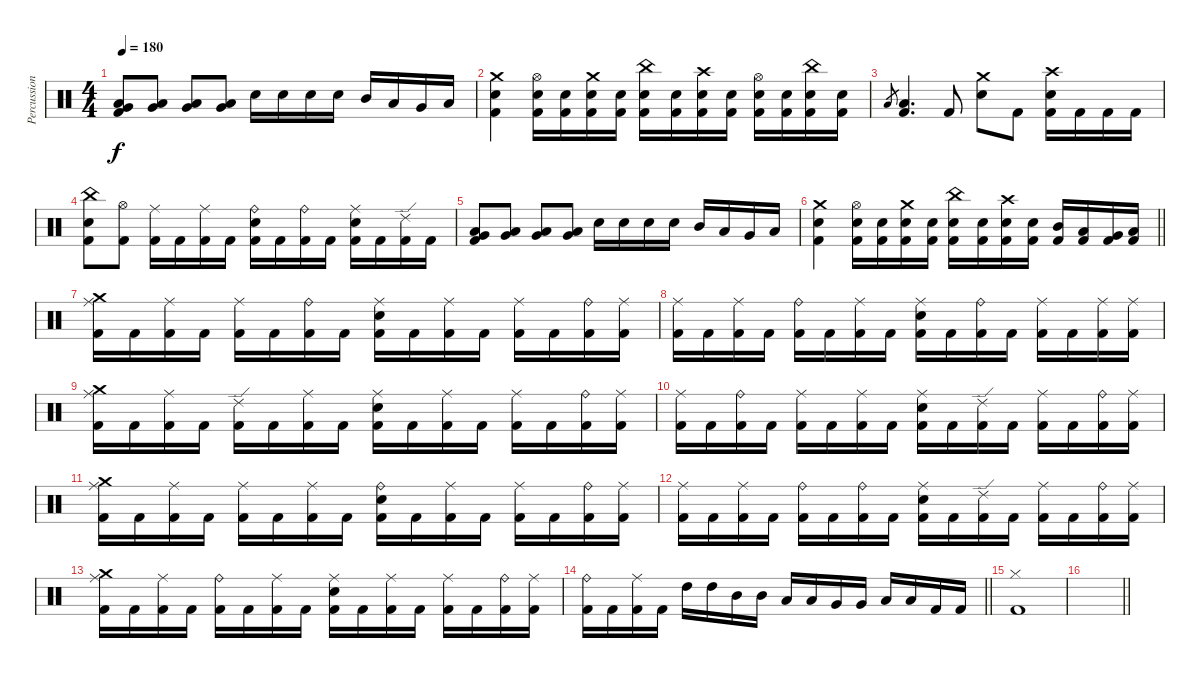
\track ("Percussions" "Percussion") {instrument percussion}
\staff {score}
\articulation defaults
\ts (4 4)
\tempo 180
\clef neutral
\ks c
("Low Tom (hit)" "Very Low Tom (hit)" "Kick (hit) 2").8{dy f} ("Low Tom (hit)" "Very Low Tom (hit)").8 ("Low Tom (hit)" "Very Low Tom (hit)").8 ("Low Tom (hit)" "Very Low Tom (hit)").8 "Electric Snare (hit)".16 "Electric Snare (hit)".16 "Electric Snare (hit)".16 "Electric Snare (hit)".16 "Mid Tom (hit)".16 "Low Tom (hit)".16 "Very Low Tom (hit)".16 "Low Floor Tom (hit)".16 |
("Crash medium (hit)" "Electric Snare (hit)" "Kick (hit) 2").4 ("Hi-Hat (open)" "Electric Snare (hit)" "Kick (hit) 2").16 ("Electric Snare (hit)" "Kick (hit) 2").16 ("Crash medium (hit)" "Electric Snare (hit)" "Kick (hit) 2").16 ("Electric Snare (hit)" "Kick (hit) 2").16 ("China (hit)" "Electric Snare (hit)" "Kick (hit) 2").16 ("Electric Snare (hit)" "Kick (hit) 2").16 ("Crash high (hit)" "Electric Snare (hit)" "Kick (hit) 2").16 ("Electric Snare (hit)" "Kick (hit) 2").16 ("Hi-Hat (open)" "Electric Snare (hit)" "Kick (hit) 2").16 ("Electric Snare (hit)" "Kick (hit) 2").16 ("China (hit)" "Electric Snare (hit)" "Kick (hit) 2").16 ("Electric Snare (hit)" "Kick (hit) 2").16 |
"Low Tom (hit)".8{gr} ("Low Tom (hit)" "Kick (hit) 2").4{d} "Kick (hit) 2".8 ("Crash medium (hit)" "Electric Snare (hit)").8 "Kick (hit) 2".8 ("Crash high (hit)" "Electric Snare (hit)" "Kick (hit) 2").16 "Kick (hit) 2".16 "Kick (hit) 2".16 "Kick (hit) 2".16 |
("China (hit)" "Electric Snare (hit)" "Kick (hit) 2").8 ("Hi-Hat (open)" "Kick (hit) 2").8 ("Ride (middle)" "Kick (hit) 2").16 "Kick (hit) 2".16 ("Ride (middle)" "Kick (hit) 2").16 "Kick (hit) 2".16 ("Ride (bell)" "Electric Snare (hit)" "Kick (hit) 2").16 "Kick (hit) 2".16 ("Ride (bell)" "Kick (hit) 2").16 "Kick (hit) 2".16 ("Ride (middle)" "Electric Snare (hit)" "Kick (hit) 2").16 "Kick (hit) 2".16 ("Ride (edge) 2" "Kick (hit) 2").16 "Kick (hit) 2".16 |
("Low Tom (hit)" "Very Low Tom (hit)" "Kick (hit) 2").8 ("Low Tom (hit)" "Very Low Tom (hit)").8 ("Low Tom (hit)" "Very Low Tom (hit)").8 ("Low Tom (hit)" "Very Low Tom (hit)").8 "Electric Snare (hit)".16 "Electric Snare (hit)".16 "Electric Snare (hit)".16 "Electric Snare (hit)".16 "Mid Tom (hit)".16 "Low Tom (hit)".16 "Very Low Tom (hit)".16 "Low Floor Tom (hit)".16 |
\barLineRight lightlight
("Crash medium (hit)" "Electric Snare (hit)" "Kick (hit) 2").4 ("Hi-Hat (open)" "Electric Snare (hit)" "Kick (hit) 2").16 ("Electric Snare (hit)" "Kick (hit) 2").16 ("Crash medium (hit)" "Electric Snare (hit)" "Kick (hit) 2").16 ("Electric Snare (hit)" "Kick (hit) 2").16 ("China (hit)" "Electric Snare (hit)" "Kick (hit) 2").16 ("Electric Snare (hit)" "Kick (hit) 2").16 ("Crash high (hit)" "Electric Snare (hit)" "Kick (hit) 2").16 ("Electric Snare (hit)" "Kick (hit) 2").16 ("Mid Tom (hit)" "Kick (hit) 2").16 ("Low Tom (hit)" "Kick (hit) 2").16 ("Very Low Tom (hit)" "Kick (hit) 2").16 ("Low Floor Tom (hit)" "Kick (hit) 2").16 |
("Ride (middle)" "Crash medium (hit)" "Kick (hit) 2").16 "Kick (hit) 2".16 ("Ride (middle)" "Kick (hit) 2").16 "Kick (hit) 2".16 ("Ride (middle)" "Kick (hit) 2").16 "Kick (hit) 2".16 ("Ride (bell)" "Kick (hit) 2").16 "Kick (hit) 2".16 ("Ride (middle)" "Electric Snare (hit)" "Kick (hit) 2").16 "Kick (hit) 2".16 ("Ride (middle)" "Kick (hit) 2").16 "Kick (hit) 2".16 ("Ride (middle)" "Kick (hit) 2").16 "Kick (hit) 2".16 ("Ride (bell)" "Kick (hit) 2").16 ("Ride (middle)" "Kick (hit) 2").16 |
("Ride (middle)" "Kick (hit) 2").16 "Kick (hit) 2".16 ("Ride (middle)" "Kick (hit) 2").16 "Kick (hit) 2".16 ("Ride (bell)" "Kick (hit) 2").16 "Kick (hit) 2".16 ("Ride (middle)" "Kick (hit) 2").16 "Kick (hit) 2".16 ("Ride (middle)" "Electric Snare (hit)" "Kick (hit) 2").16 "Kick (hit) 2".16 ("Ride (bell)" "Kick (hit) 2").16 "Kick (hit) 2".16 ("Ride (middle)" "Kick (hit) 2").16 "Kick (hit) 2".16 ("Ride (middle)" "Kick (hit) 2").16 ("Ride (middle)" "Kick (hit) 2").16 |
("Ride (middle)" "Crash medium (hit)" "Kick (hit) 2").16 "Kick (hit) 2".16 ("Ride (middle)" "Kick (hit) 2").16 "Kick (hit) 2".16 ("Ride (edge) 2" "Kick (hit) 2").16 "Kick (hit) 2".16 ("Ride (middle)" "Kick (hit) 2").16 "Kick (hit) 2".16 ("Ride (middle)" "Electric Snare (hit)" "Kick (hit) 2").16 "Kick (hit) 2".16 ("Ride (middle)" "Kick (hit) 2").16 "Kick (hit) 2".16 ("Ride (middle)" "Kick (hit) 2").16 "Kick (hit) 2".16 ("Ride (bell)" "Kick (hit) 2").16 ("Ride (middle)" "Kick (hit) 2").16 |
("Ride (middle)" "Kick (hit) 2").16 "Kick (hit) 2".16 ("Ride (bell)" "Kick (hit) 2").16 "Kick (hit) 2".16 ("Ride (middle)" "Kick (hit) 2").16 "Kick (hit) 2".16 ("Ride (middle)" "Kick (hit) 2").16 "Kick (hit) 2".16 ("Ride (middle)" "Electric Snare (hit)" "Kick (hit) 2").16 "Kick (hit) 2".16 ("Ride (edge) 2" "Kick (hit) 2").16 "Kick (hit) 2".16 ("Ride (middle)" "Kick (hit) 2").16 "Kick (hit) 2".16 ("Ride (bell)" "Kick (hit) 2").16 ("Ride (middle)" "Kick (hit) 2").16 |
("Ride (middle)" "Crash medium (hit)" "Kick (hit) 2").16 "Kick (hit) 2".16 ("Ride (middle)" "Kick (hit) 2").16 "Kick (hit) 2".16 ("Ride (middle)" "Kick (hit) 2").16 "Kick (hit) 2".16 ("Ride (middle)" "Kick (hit) 2").16 "Kick (hit) 2".16 ("Ride (bell)" "Electric Snare (hit)" "Kick (hit) 2").16 "Kick (hit) 2".16 ("Ride (middle)" "Kick (hit) 2").16 "Kick (hit) 2".16 ("Ride (middle)" "Kick (hit) 2").16 "Kick (hit) 2".16 ("Ride (bell)" "Kick (hit) 2").16 ("Ride (middle)" "Kick (hit) 2").16 |
("Ride (middle)" "Kick (hit) 2").16 "Kick (hit) 2".16 ("Ride (middle)" "Kick (hit) 2").16 "Kick (hit) 2".16 ("Ride (bell)" "Kick (hit) 2").16 "Kick (hit) 2".16 ("Ride (bell)" "Kick (hit) 2").16 "Kick (hit) 2".16 ("Ride (middle)" "Electric Snare (hit)" "Kick (hit) 2").16 "Kick (hit) 2".16 ("Ride (edge) 2" "Kick (hit) 2").16 "Kick (hit) 2".16 ("Ride (middle)" "Kick (hit) 2").16 "Kick (hit) 2".16 ("Ride (bell)" "Kick (hit) 2").16 ("Ride (middle)" "Kick (hit) 2").16 |
("Ride (middle)" "Crash medium (hit)" "Kick (hit) 2").16 "Kick (hit) 2".16 ("Ride (middle)" "Kick (hit) 2").16 "Kick (hit) 2".16 ("Ride (bell)" "Kick (hit) 2").16 "Kick (hit) 2".16 ("Ride (middle)" "Kick (hit) 2").16 "Kick (hit) 2".16 ("Ride (middle)" "Electric Snare (hit)" "Kick (hit) 2").16 "Kick (hit) 2".16 ("Ride (middle)" "Kick (hit) 2").16 "Kick (hit) 2".16 ("Ride (middle)" "Kick (hit) 2").16 "Kick (hit) 2".16 ("Ride (bell)" "Kick (hit) 2").16 ("Ride (middle)" "Kick (hit) 2").16 |
\barLineRight lightlight
("Ride (bell)" "Kick (hit) 2").16 "Kick (hit) 2".16 ("Ride (middle)" "Kick (hit) 2").16 "Kick (hit) 2".16 "High Tom (hit)".16 "High Tom (hit)".16 "Mid Tom (hit)".16 "Mid Tom (hit)".16 "Low Tom (hit)".16 "Low Tom (hit)".16 "Very Low Tom (hit)".16 "Very Low Tom (hit)".16 "Low Floor Tom (hit)".16 "Low Floor Tom (hit)".16 "Kick (hit) 2".16 "Kick (hit) 2".16 |
("Hi-Hat (closed)" "Kick (hit) 2").1 |
\barLineRight lightlight
